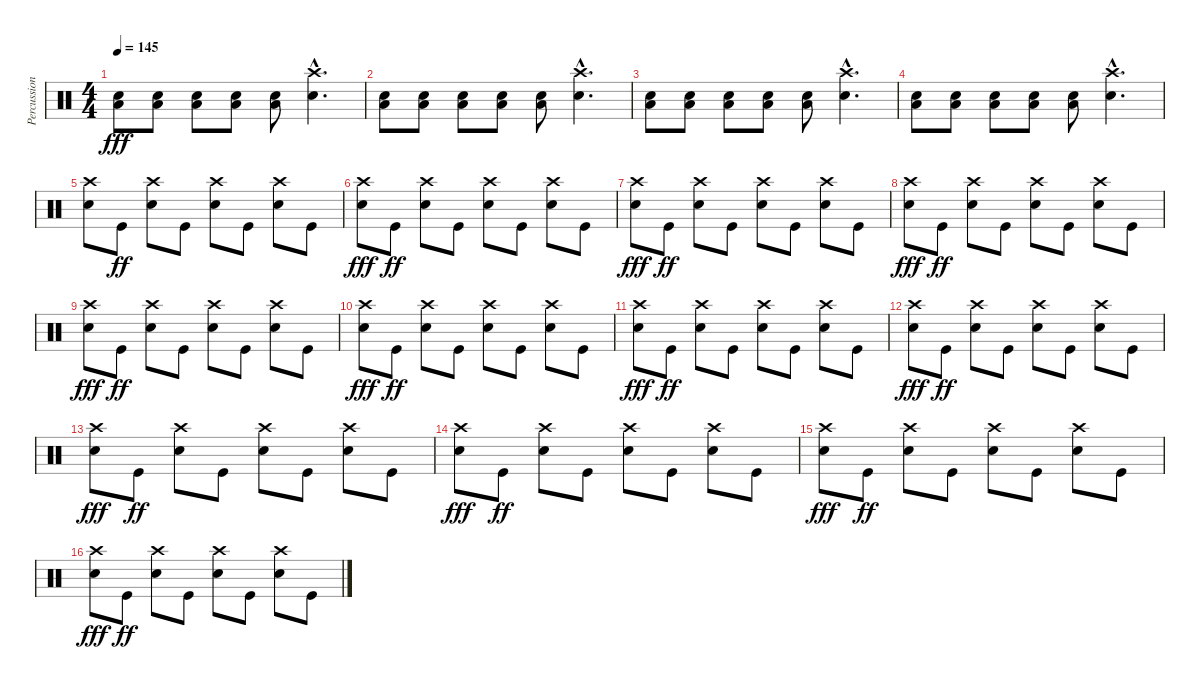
\track ("Percussion" "Percussion") {instrument percussion}
\staff {score}
\articulation defaults
\ts (4 4)
\tempo 145
\clef neutral
\ks c
("Low Floor Tom (hit)" "Snare (hit) 2").8{dy fff} ("Low Floor Tom (hit)" "Snare (hit) 2").8 ("Low Floor Tom (hit)" "Snare (hit) 2").8 ("Low Floor Tom (hit)" "Snare (hit) 2").8 ("Low Floor Tom (hit)" "Snare (hit) 2").8 ("Crash high (hit)"{hac} "Snare (hit) 2"{hac}).4{d} |
("Low Floor Tom (hit)" "Snare (hit) 2").8 ("Low Floor Tom (hit)" "Snare (hit) 2").8 ("Low Floor Tom (hit)" "Snare (hit) 2").8 ("Low Floor Tom (hit)" "Snare (hit) 2").8 ("Low Floor Tom (hit)" "Snare (hit) 2").8 ("Crash high (hit)"{hac} "Snare (hit) 2"{hac}).4{d} |
("Low Floor Tom (hit)" "Snare (hit) 2").8 ("Low Floor Tom (hit)" "Snare (hit) 2").8 ("Low Floor Tom (hit)" "Snare (hit) 2").8 ("Low Floor Tom (hit)" "Snare (hit) 2").8 ("Low Floor Tom (hit)" "Snare (hit) 2").8 ("Crash high (hit)"{hac} "Snare (hit) 2"{hac}).4{d} |
("Low Floor Tom (hit)" "Snare (hit) 2").8 ("Low Floor Tom (hit)" "Snare (hit) 2").8 ("Low Floor Tom (hit)" "Snare (hit) 2").8 ("Low Floor Tom (hit)" "Snare (hit) 2").8 ("Low Floor Tom (hit)" "Snare (hit) 2").8 ("Crash high (hit)"{hac} "Snare (hit) 2"{hac}).4{d} |
("Crash high (hit)" "Snare (hit) 2").8 "Kick (hit)".8{dy ff} ("Crash high (hit)" "Snare (hit) 2").8 "Kick (hit)".8 ("Crash high (hit)" "Snare (hit) 2").8 "Kick (hit)".8 ("Crash high (hit)" "Snare (hit) 2").8 "Kick (hit)".8 |
("Crash high (hit)" "Snare (hit) 2").8{dy fff} "Kick (hit)".8{dy ff} ("Crash high (hit)" "Snare (hit) 2").8 "Kick (hit)".8 ("Crash high (hit)" "Snare (hit) 2").8 "Kick (hit)".8 ("Crash high (hit)" "Snare (hit) 2").8 "Kick (hit)".8 |
("Crash high (hit)" "Snare (hit) 2").8{dy fff} "Kick (hit)".8{dy ff} ("Crash high (hit)" "Snare (hit) 2").8 "Kick (hit)".8 ("Crash high (hit)" "Snare (hit) 2").8 "Kick (hit)".8 ("Crash high (hit)" "Snare (hit) 2").8 "Kick (hit)".8 |
("Crash high (hit)" "Snare (hit) 2").8{dy fff} "Kick (hit)".8{dy ff} ("Crash high (hit)" "Snare (hit) 2").8 "Kick (hit)".8 ("Crash high (hit)" "Snare (hit) 2").8 "Kick (hit)".8 ("Crash high (hit)" "Snare (hit) 2").8 "Kick (hit)".8 |
("Crash high (hit)" "Snare (hit) 2").8{dy fff} "Kick (hit)".8{dy ff} ("Crash high (hit)" "Snare (hit) 2").8 "Kick (hit)".8 ("Crash high (hit)" "Snare (hit) 2").8 "Kick (hit)".8 ("Crash high (hit)" "Snare (hit) 2").8 "Kick (hit)".8 |
("Crash high (hit)" "Snare (hit) 2").8{dy fff} "Kick (hit)".8{dy ff} ("Crash high (hit)" "Snare (hit) 2").8 "Kick (hit)".8 ("Crash high (hit)" "Snare (hit) 2").8 "Kick (hit)".8 ("Crash high (hit)" "Snare (hit) 2").8 "Kick (hit)".8 |
("Crash high (hit)" "Snare (hit) 2").8{dy fff} "Kick (hit)".8{dy ff} ("Crash high (hit)" "Snare (hit) 2").8 "Kick (hit)".8 ("Crash high (hit)" "Snare (hit) 2").8 "Kick (hit)".8 ("Crash high (hit)" "Snare (hit) 2").8 "Kick (hit)".8 |
("Crash high (hit)" "Snare (hit) 2").8{dy fff} "Kick (hit)".8{dy ff} ("Crash high (hit)" "Snare (hit) 2").8 "Kick (hit)".8 ("Crash high (hit)" "Snare (hit) 2").8 "Kick (hit)".8 ("Crash high (hit)" "Snare (hit) 2").8 "Kick (hit)".8 |
("Crash high (hit)" "Snare (hit) 2").8{dy fff} "Kick (hit)".8{dy ff} ("Crash high (hit)" "Snare (hit) 2").8 "Kick (hit)".8 ("Crash high (hit)" "Snare (hit) 2").8 "Kick (hit)".8 ("Crash high (hit)" "Snare (hit) 2").8 "Kick (hit)".8 |
("Crash high (hit)" "Snare (hit) 2").8{dy fff} "Kick (hit)".8{dy ff} ("Crash high (hit)" "Snare (hit) 2").8 "Kick (hit)".8 ("Crash high (hit)" "Snare (hit) 2").8 "Kick (hit)".8 ("Crash high (hit)" "Snare (hit) 2").8 "Kick (hit)".8 |
("Crash high (hit)" "Snare (hit) 2").8{dy fff} "Kick (hit)".8{dy ff} ("Crash high (hit)" "Snare (hit) 2").8 "Kick (hit)".8 ("Crash high (hit)" "Snare (hit) 2").8 "Kick (hit)".8 ("Crash high (hit)" "Snare (hit) 2").8 "Kick (hit)".8 |
("Crash high (hit)" "Snare (hit) 2").8{dy fff} "Kick (hit)".8{dy ff} ("Crash high (hit)" "Snare (hit) 2").8 "Kick (hit)".8 ("Crash high (hit)" "Snare (hit) 2").8 "Kick (hit)".8 ("Crash high (hit)" "Snare (hit) 2").8 "Kick (hit)".8
